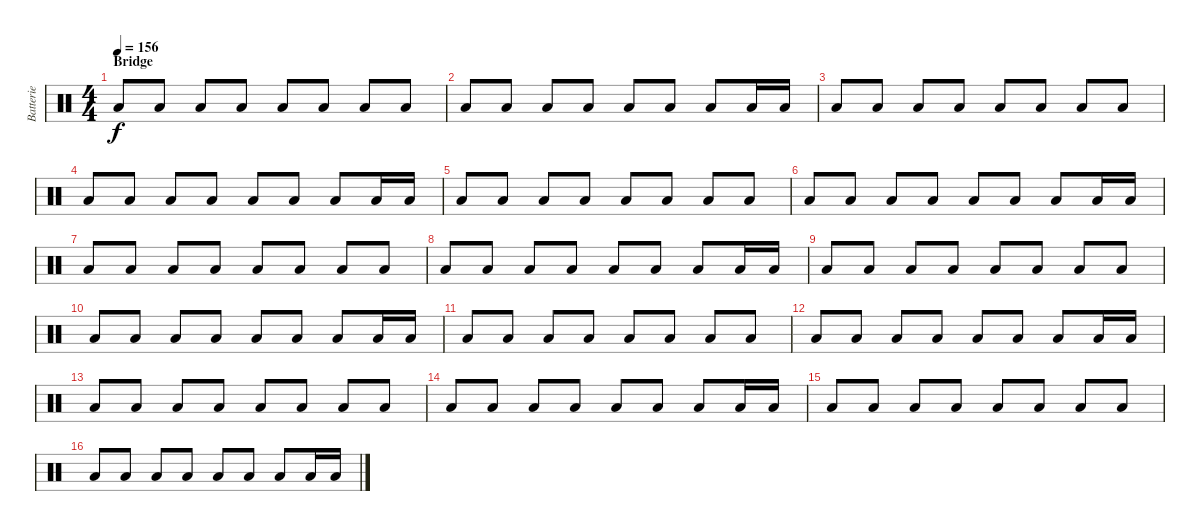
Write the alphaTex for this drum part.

\track ("Batterie" "Batterie") {instrument percussion}
\staff {score}
\articulation defaults
\ts (4 4)
\section ("" "Bridge")
\tempo 156
\clef neutral
\ks c "Low Floor Tom (hit)".8{dy f} "Low Floor Tom (hit)".8 "Low Floor Tom (hit)".8 "Low Floor Tom (hit)".8 "Low Floor Tom (hit)".8 "Low Floor Tom (hit)".8 "Low Floor Tom (hit)".8 "Low Floor Tom (hit)".8
|
"Low Floor Tom (hit)".8 "Low Floor Tom (hit)".8 "Low Floor Tom (hit)".8 "Low Floor Tom (hit)".8 "Low Floor Tom (hit)".8 "Low Floor Tom (hit)".8 "Low Floor Tom (hit)".8 "Low Floor Tom (hit)".16 "Low Floor Tom (hit)".16 |
"Low Floor Tom (hit)".8 "Low Floor Tom (hit)".8 "Low Floor Tom (hit)".8 "Low Floor Tom (hit)".8 "Low Floor Tom (hit)".8 "Low Floor Tom (hit)".8 "Low Floor Tom (hit)".8 "Low Floor Tom (hit)".8 |
"Low Floor Tom (hit)".8 "Low Floor Tom (hit)".8 "Low Floor Tom (hit)".8 "Low Floor Tom (hit)".8 "Low Floor Tom (hit)".8 "Low Floor Tom (hit)".8 "Low Floor Tom (hit)".8 "Low Floor Tom (hit)".16 "Low Floor Tom (hit)".16 |
"Low Floor Tom (hit)".8 "Low Floor Tom (hit)".8 "Low Floor Tom (hit)".8 "Low Floor Tom (hit)".8 "Low Floor Tom (hit)".8 "Low Floor Tom (hit)".8 "Low Floor Tom (hit)".8 "Low Floor Tom (hit)".8 |
"Low Floor Tom (hit)".8 "Low Floor Tom (hit)".8 "Low Floor Tom (hit)".8 "Low Floor Tom (hit)".8 "Low Floor Tom (hit)".8 "Low Floor Tom (hit)".8 "Low Floor Tom (hit)".8 "Low Floor Tom (hit)".16 "Low Floor Tom (hit)".16 |
"Low Floor Tom (hit)".8 "Low Floor Tom (hit)".8 "Low Floor Tom (hit)".8 "Low Floor Tom (hit)".8 "Low Floor Tom (hit)".8 "Low Floor Tom (hit)".8 "Low Floor Tom (hit)".8 "Low Floor Tom (hit)".8 |
"Low Floor Tom (hit)".8 "Low Floor Tom (hit)".8 "Low Floor Tom (hit)".8 "Low Floor Tom (hit)".8 "Low Floor Tom (hit)".8 "Low Floor Tom (hit)".8 "Low Floor Tom (hit)".8 "Low Floor Tom (hit)".16 "Low Floor Tom (hit)".16 |
"Low Floor Tom (hit)".8 "Low Floor Tom (hit)".8 "Low Floor Tom (hit)".8 "Low Floor Tom (hit)".8 "Low Floor Tom (hit)".8 "Low Floor Tom (hit)".8 "Low Floor Tom (hit)".8 "Low Floor Tom (hit)".8 |
"Low Floor Tom (hit)".8 "Low Floor Tom (hit)".8 "Low Floor Tom (hit)".8 "Low Floor Tom (hit)".8 "Low Floor Tom (hit)".8 "Low Floor Tom (hit)".8 "Low Floor Tom (hit)".8 "Low Floor Tom (hit)".16 "Low Floor Tom (hit)".16 |
"Low Floor Tom (hit)".8 "Low Floor Tom (hit)".8 "Low Floor Tom (hit)".8 "Low Floor Tom (hit)".8 "Low Floor Tom (hit)".8 "Low Floor Tom (hit)".8 "Low Floor Tom (hit)".8 "Low Floor Tom (hit)".8 |
"Low Floor Tom (hit)".8 "Low Floor Tom (hit)".8 "Low Floor Tom (hit)".8 "Low Floor Tom (hit)".8 "Low Floor Tom (hit)".8 "Low Floor Tom (hit)".8 "Low Floor Tom (hit)".8 "Low Floor Tom (hit)".16 "Low Floor Tom (hit)".16 |
"Low Floor Tom (hit)".8 "Low Floor Tom (hit)".8 "Low Floor Tom (hit)".8 "Low Floor Tom (hit)".8 "Low Floor Tom (hit)".8 "Low Floor Tom (hit)".8 "Low Floor Tom (hit)".8 "Low Floor Tom (hit)".8 |
"Low Floor Tom (hit)".8 "Low Floor Tom (hit)".8 "Low Floor Tom (hit)".8 "Low Floor Tom (hit)".8 "Low Floor Tom (hit)".8 "Low Floor Tom (hit)".8 "Low Floor Tom (hit)".8 "Low Floor Tom (hit)".16 "Low Floor Tom (hit)".16 |
"Low Floor Tom (hit)".8 "Low Floor Tom (hit)".8 "Low Floor Tom (hit)".8 "Low Floor Tom (hit)".8 "Low Floor Tom (hit)".8 "Low Floor Tom (hit)".8 "Low Floor Tom (hit)".8 "Low Floor Tom (hit)".8 |
"Low Floor Tom (hit)".8 "Low Floor Tom (hit)".8 "Low Floor Tom (hit)".8 "Low Floor Tom (hit)".8 "Low Floor Tom (hit)".8 "Low Floor Tom (hit)".8 "Low Floor Tom (hit)".8 "Low Floor Tom (hit)".16 "Low Floor Tom (hit)".16
